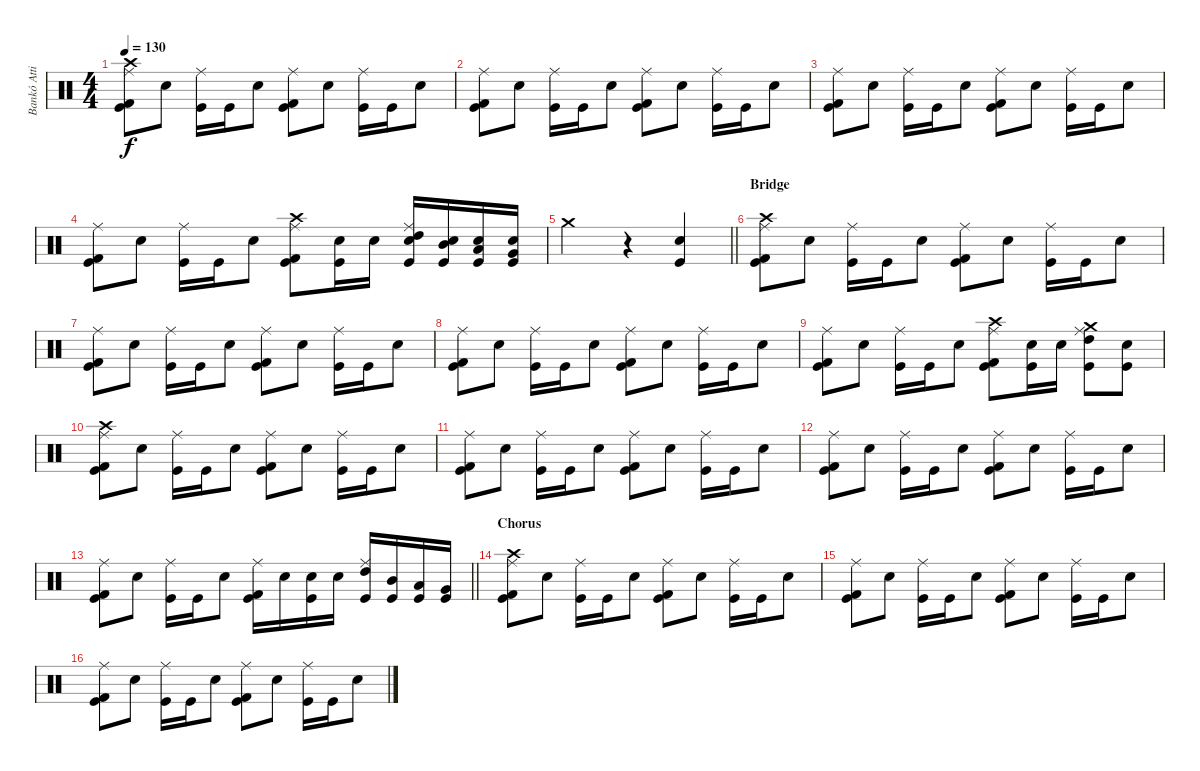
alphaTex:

\track ("Bankó Attila-Drum" "Bankó Atti") {instrument percussion}
\staff {score}
\articulation defaults
\ts (4 4)
\tempo 130
\clef neutral
\ks c
("Kick (hit) 2" "Kick (hit)" "Crash high (hit)" "Ride (middle)").8{dy f} "Snare (hit) 2".8 ("Kick (hit)" "Ride (middle)").16 "Kick (hit)".16 "Snare (hit) 2".8 ("Kick (hit) 2" "Kick (hit)" "Ride (middle)").8 "Snare (hit) 2".8 ("Kick (hit)" "Ride (middle)").16 "Kick (hit)".16 "Snare (hit) 2".8 |
("Kick (hit) 2" "Kick (hit)" "Ride (middle)").8 "Snare (hit) 2".8 ("Kick (hit)" "Ride (middle)").16 "Kick (hit)".16 "Snare (hit) 2".8 ("Kick (hit) 2" "Kick (hit)" "Ride (middle)").8 "Snare (hit) 2".8 ("Kick (hit)" "Ride (middle)").16 "Kick (hit)".16 "Snare (hit) 2".8 |
("Kick (hit) 2" "Kick (hit)" "Ride (middle)").8 "Snare (hit) 2".8 ("Kick (hit)" "Ride (middle)").16 "Kick (hit)".16 "Snare (hit) 2".8 ("Kick (hit) 2" "Kick (hit)" "Ride (middle)").8 "Snare (hit) 2".8 ("Kick (hit)" "Ride (middle)").16 "Kick (hit)".16 "Snare (hit) 2".8 |
("Kick (hit) 2" "Kick (hit)" "Ride (middle)").8 "Snare (hit) 2".8 ("Kick (hit)" "Ride (middle)").16 "Kick (hit)".16 "Snare (hit) 2".8 ("Kick (hit) 2" "Kick (hit)" "Crash high (hit)" "Ride (middle)").8 ("Snare (hit) 2" "Kick (hit)").16 "Snare (hit) 2".16 ("High Tom (hit)" "Kick (hit)" "Snare (hit) 2" "Ride (middle)").16 ("Mid Tom (hit)" "Kick (hit)" "Snare (hit) 2").16 ("Low Tom (hit)" "Kick (hit)" "Snare (hit) 2").16 ("Very Low Tom (hit)" "Kick (hit)" "Snare (hit) 2").16 |
\barLineRight lightlight "Crash medium (hit)".2
r.4 ("Kick (hit)" "Snare (hit) 2").4 |
\section ("" "Bridge")
("Kick (hit) 2" "Kick (hit)" "Crash high (hit)" "Ride (middle)").8 "Snare (hit) 2".8 ("Kick (hit)" "Ride (middle)").16 "Kick (hit)".16 "Snare (hit) 2".8 ("Kick (hit) 2" "Kick (hit)" "Ride (middle)").8 "Snare (hit) 2".8 ("Kick (hit)" "Ride (middle)").16 "Kick (hit)".16 "Snare (hit) 2".8 |
("Kick (hit) 2" "Kick (hit)" "Ride (middle)").8 "Snare (hit) 2".8 ("Kick (hit)" "Ride (middle)").16 "Kick (hit)".16 "Snare (hit) 2".8 ("Kick (hit) 2" "Kick (hit)" "Ride (middle)").8 "Snare (hit) 2".8 ("Kick (hit)" "Ride (middle)").16 "Kick (hit)".16 "Snare (hit) 2".8 |
("Kick (hit) 2" "Kick (hit)" "Ride (middle)").8 "Snare (hit) 2".8 ("Kick (hit)" "Ride (middle)").16 "Kick (hit)".16 "Snare (hit) 2".8 ("Kick (hit) 2" "Kick (hit)" "Ride (middle)").8 "Snare (hit) 2".8 ("Kick (hit)" "Ride (middle)").16 "Kick (hit)".16 "Snare (hit) 2".8 |
("Kick (hit) 2" "Kick (hit)" "Ride (middle)").8 "Snare (hit) 2".8 ("Kick (hit)" "Ride (middle)").16 "Kick (hit)".16 "Snare (hit) 2".8 ("Kick (hit) 2" "Kick (hit)" "Crash high (hit)" "Ride (middle)").8 ("Snare (hit) 2" "Kick (hit)").16 "Snare (hit) 2".16 ("High Tom (hit)" "Kick (hit)" "Crash medium (hit)" "Ride (middle)").8 ("Snare (hit) 2" "Kick (hit)").8 |
("Kick (hit) 2" "Kick (hit)" "Crash high (hit)" "Ride (middle)").8 "Snare (hit) 2".8 ("Kick (hit)" "Ride (middle)").16 "Kick (hit)".16 "Snare (hit) 2".8 ("Kick (hit) 2" "Kick (hit)" "Ride (middle)").8 "Snare (hit) 2".8 ("Kick (hit)" "Ride (middle)").16 "Kick (hit)".16 "Snare (hit) 2".8 |
("Kick (hit) 2" "Kick (hit)" "Ride (middle)").8 "Snare (hit) 2".8 ("Kick (hit)" "Ride (middle)").16 "Kick (hit)".16 "Snare (hit) 2".8 ("Kick (hit) 2" "Kick (hit)" "Ride (middle)").8 "Snare (hit) 2".8 ("Kick (hit)" "Ride (middle)").16 "Kick (hit)".16 "Snare (hit) 2".8 |
("Kick (hit) 2" "Kick (hit)" "Ride (middle)").8 "Snare (hit) 2".8 ("Kick (hit)" "Ride (middle)").16 "Kick (hit)".16 "Snare (hit) 2".8 ("Kick (hit) 2" "Kick (hit)" "Ride (middle)").8 "Snare (hit) 2".8 ("Kick (hit)" "Ride (middle)").16 "Kick (hit)".16 "Snare (hit) 2".8 |
\barLineRight lightlight
("Kick (hit) 2" "Kick (hit)" "Ride (middle)").8 "Snare (hit) 2".8 ("Kick (hit)" "Ride (middle)").16 "Kick (hit)".16 "Snare (hit) 2".8 ("Kick (hit) 2" "Kick (hit)" "Ride (middle)").16 "Snare (hit) 2".16 ("Snare (hit) 2" "Kick (hit)").16 "Snare (hit) 2".16 ("High Tom (hit)" "Kick (hit)" "Ride (middle)").16 ("Mid Tom (hit)" "Kick (hit)").16 ("Low Tom (hit)" "Kick (hit)").16 ("Very Low Tom (hit)" "Kick (hit)").16 |
\section ("" "Chorus")
("Kick (hit) 2" "Kick (hit)" "Crash high (hit)" "Ride (middle)").8 "Snare (hit) 2".8 ("Kick (hit)" "Ride (middle)").16 "Kick (hit)".16 "Snare (hit) 2".8 ("Kick (hit) 2" "Kick (hit)" "Ride (middle)").8 "Snare (hit) 2".8 ("Kick (hit)" "Ride (middle)").16 "Kick (hit)".16 "Snare (hit) 2".8 |
("Kick (hit) 2" "Kick (hit)" "Ride (middle)").8 "Snare (hit) 2".8 ("Kick (hit)" "Ride (middle)").16 "Kick (hit)".16 "Snare (hit) 2".8 ("Kick (hit) 2" "Kick (hit)" "Ride (middle)").8 "Snare (hit) 2".8 ("Kick (hit)" "Ride (middle)").16 "Kick (hit)".16 "Snare (hit) 2".8 |
("Kick (hit) 2" "Kick (hit)" "Ride (middle)").8 "Snare (hit) 2".8 ("Kick (hit)" "Ride (middle)").16 "Kick (hit)".16 "Snare (hit) 2".8 ("Kick (hit) 2" "Kick (hit)" "Ride (middle)").8 "Snare (hit) 2".8 ("Kick (hit)" "Ride (middle)").16 "Kick (hit)".16 "Snare (hit) 2".8
